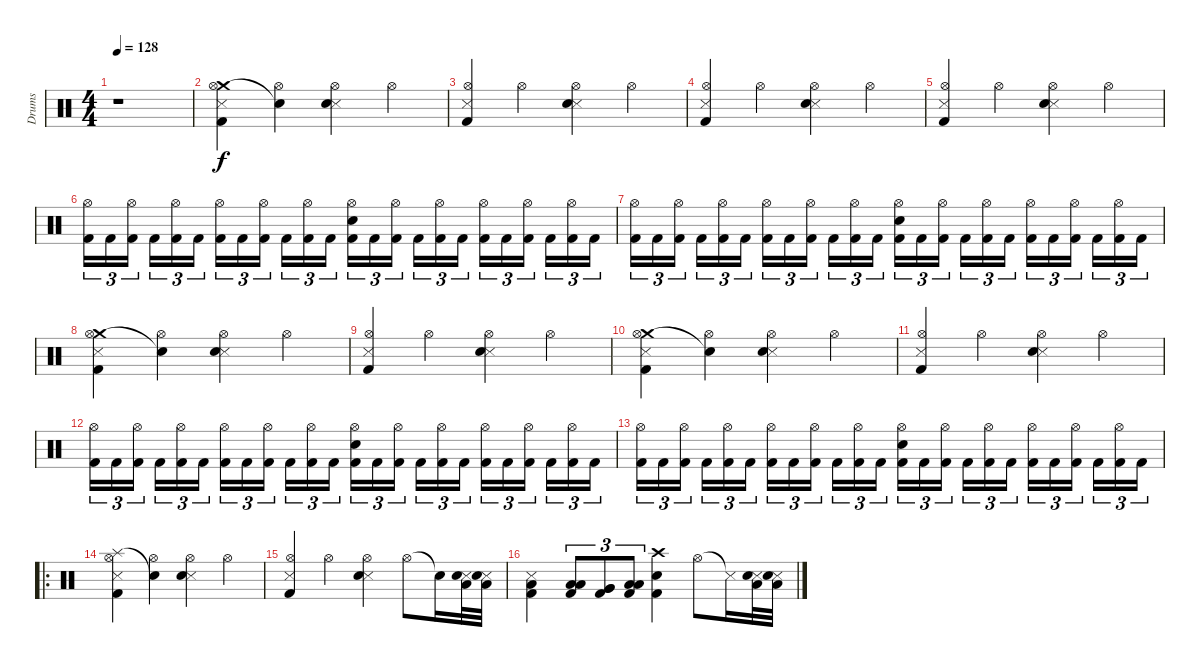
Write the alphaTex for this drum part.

\track ("Drums" "Drums") {instrument percussion}
\staff {score}
\articulation defaults
\ts (4 4)
\tempo 128
\clef neutral
\ks c
r.1{dy f} |
("Crash medium (hit)" "Snare (side stick) 3" "Hi-Hat (open)" "Kick (hit) 2").4 ("Snare (hit)"{t} "Hi-Hat (open)").4 ("Snare (side stick) 3" "Hi-Hat (open)" "Electric Snare (hit)").4 "Hi-Hat (open)".4 |
("Snare (side stick) 3" "Hi-Hat (open)" "Kick (hit) 2").4 "Hi-Hat (open)".4 ("Snare (side stick) 3" "Hi-Hat (open)" "Electric Snare (hit)").4 "Hi-Hat (open)".4 |
("Snare (side stick) 3" "Hi-Hat (open)" "Kick (hit) 2").4 "Hi-Hat (open)".4 ("Snare (side stick) 3" "Hi-Hat (open)" "Electric Snare (hit)").4 "Hi-Hat (open)".4 |
("Snare (side stick) 3" "Hi-Hat (open)" "Kick (hit) 2").4 "Hi-Hat (open)".4 ("Snare (side stick) 3" "Hi-Hat (open)" "Electric Snare (hit)").4 "Hi-Hat (open)".4 |
("Hi-Hat (open)" "Kick (hit) 2").16{tu (3 2)} "Kick (hit) 2".16{tu (3 2)} ("Hi-Hat (open)" "Kick (hit) 2").16{tu (3 2)} "Kick (hit) 2".16{tu (3 2)} ("Hi-Hat (open)" "Kick (hit) 2").16{tu (3 2)} "Kick (hit) 2".16{tu (3 2)} ("Hi-Hat (open)" "Kick (hit) 2").16{tu (3 2)} "Kick (hit) 2".16{tu (3 2)} ("Hi-Hat (open)" "Kick (hit) 2").16{tu (3 2)} "Kick (hit) 2".16{tu (3 2)} ("Hi-Hat (open)" "Kick (hit) 2").16{tu (3 2)} "Kick (hit) 2".16{tu (3 2)} ("Hi-Hat (open)" "Electric Snare (hit)" "Kick (hit) 2").16{tu (3 2)} "Kick (hit) 2".16{tu (3 2)} ("Hi-Hat (open)" "Kick (hit) 2").16{tu (3 2)} "Kick (hit) 2".16{tu (3 2)} ("Hi-Hat (open)" "Kick (hit) 2").16{tu (3 2)} "Kick (hit) 2".16{tu (3 2)} ("Hi-Hat (open)" "Kick (hit) 2").16{tu (3 2)} "Kick (hit) 2".16{tu (3 2)} ("Hi-Hat (open)" "Kick (hit) 2").16{tu (3 2)} "Kick (hit) 2".16{tu (3 2)} ("Hi-Hat (open)" "Kick (hit) 2").16{tu (3 2)} "Kick (hit) 2".16{tu (3 2)} |
("Hi-Hat (open)" "Kick (hit) 2").16{tu (3 2)} "Kick (hit) 2".16{tu (3 2)} ("Hi-Hat (open)" "Kick (hit) 2").16{tu (3 2)} "Kick (hit) 2".16{tu (3 2)} ("Hi-Hat (open)" "Kick (hit) 2").16{tu (3 2)} "Kick (hit) 2".16{tu (3 2)} ("Hi-Hat (open)" "Kick (hit) 2").16{tu (3 2)} "Kick (hit) 2".16{tu (3 2)} ("Hi-Hat (open)" "Kick (hit) 2").16{tu (3 2)} "Kick (hit) 2".16{tu (3 2)} ("Hi-Hat (open)" "Kick (hit) 2").16{tu (3 2)} "Kick (hit) 2".16{tu (3 2)} ("Hi-Hat (open)" "Electric Snare (hit)" "Kick (hit) 2").16{tu (3 2)} "Kick (hit) 2".16{tu (3 2)} ("Hi-Hat (open)" "Kick (hit) 2").16{tu (3 2)} "Kick (hit) 2".16{tu (3 2)} ("Hi-Hat (open)" "Kick (hit) 2").16{tu (3 2)} "Kick (hit) 2".16{tu (3 2)} ("Hi-Hat (open)" "Kick (hit) 2").16{tu (3 2)} "Kick (hit) 2".16{tu (3 2)} ("Hi-Hat (open)" "Kick (hit) 2").16{tu (3 2)} "Kick (hit) 2".16{tu (3 2)} ("Hi-Hat (open)" "Kick (hit) 2").16{tu (3 2)} "Kick (hit) 2".16{tu (3 2)} |
("Crash medium (hit)" "Snare (side stick) 3" "Hi-Hat (open)" "Kick (hit) 2").4 ("Snare (hit)"{t} "Hi-Hat (open)").4 ("Snare (side stick) 3" "Hi-Hat (open)" "Electric Snare (hit)").4 "Hi-Hat (open)".4 |
("Snare (side stick) 3" "Hi-Hat (open)" "Kick (hit) 2").4 "Hi-Hat (open)".4 ("Snare (side stick) 3" "Hi-Hat (open)" "Electric Snare (hit)").4 "Hi-Hat (open)".4 |
("Crash medium (hit)" "Snare (side stick) 3" "Hi-Hat (open)" "Kick (hit) 2").4 ("Snare (hit)"{t} "Hi-Hat (open)").4 ("Snare (side stick) 3" "Hi-Hat (open)" "Electric Snare (hit)").4 "Hi-Hat (open)".4 |
("Snare (side stick) 3" "Hi-Hat (open)" "Kick (hit) 2").4 "Hi-Hat (open)".4 ("Snare (side stick) 3" "Hi-Hat (open)" "Electric Snare (hit)").4 "Hi-Hat (open)".4 |
("Hi-Hat (open)" "Kick (hit) 2").16{tu (3 2)} "Kick (hit) 2".16{tu (3 2)} ("Hi-Hat (open)" "Kick (hit) 2").16{tu (3 2)} "Kick (hit) 2".16{tu (3 2)} ("Hi-Hat (open)" "Kick (hit) 2").16{tu (3 2)} "Kick (hit) 2".16{tu (3 2)} ("Hi-Hat (open)" "Kick (hit) 2").16{tu (3 2)} "Kick (hit) 2".16{tu (3 2)} ("Hi-Hat (open)" "Kick (hit) 2").16{tu (3 2)} "Kick (hit) 2".16{tu (3 2)} ("Hi-Hat (open)" "Kick (hit) 2").16{tu (3 2)} "Kick (hit) 2".16{tu (3 2)} ("Hi-Hat (open)" "Electric Snare (hit)" "Kick (hit) 2").16{tu (3 2)} "Kick (hit) 2".16{tu (3 2)} ("Hi-Hat (open)" "Kick (hit) 2").16{tu (3 2)} "Kick (hit) 2".16{tu (3 2)} ("Hi-Hat (open)" "Kick (hit) 2").16{tu (3 2)} "Kick (hit) 2".16{tu (3 2)} ("Hi-Hat (open)" "Kick (hit) 2").16{tu (3 2)} "Kick (hit) 2".16{tu (3 2)} ("Hi-Hat (open)" "Kick (hit) 2").16{tu (3 2)} "Kick (hit) 2".16{tu (3 2)} ("Hi-Hat (open)" "Kick (hit) 2").16{tu (3 2)} "Kick (hit) 2".16{tu (3 2)} |
("Hi-Hat (open)" "Kick (hit) 2").16{tu (3 2)} "Kick (hit) 2".16{tu (3 2)} ("Hi-Hat (open)" "Kick (hit) 2").16{tu (3 2)} "Kick (hit) 2".16{tu (3 2)} ("Hi-Hat (open)" "Kick (hit) 2").16{tu (3 2)} "Kick (hit) 2".16{tu (3 2)} ("Hi-Hat (open)" "Kick (hit) 2").16{tu (3 2)} "Kick (hit) 2".16{tu (3 2)} ("Hi-Hat (open)" "Kick (hit) 2").16{tu (3 2)} "Kick (hit) 2".16{tu (3 2)} ("Hi-Hat (open)" "Kick (hit) 2").16{tu (3 2)} "Kick (hit) 2".16{tu (3 2)} ("Hi-Hat (open)" "Electric Snare (hit)" "Kick (hit) 2").16{tu (3 2)} "Kick (hit) 2".16{tu (3 2)} ("Hi-Hat (open)" "Kick (hit) 2").16{tu (3 2)} "Kick (hit) 2".16{tu (3 2)} ("Hi-Hat (open)" "Kick (hit) 2").16{tu (3 2)} "Kick (hit) 2".16{tu (3 2)} ("Hi-Hat (open)" "Kick (hit) 2").16{tu (3 2)} "Kick (hit) 2".16{tu (3 2)} ("Hi-Hat (open)" "Kick (hit) 2").16{tu (3 2)} "Kick (hit) 2".16{tu (3 2)} ("Hi-Hat (open)" "Kick (hit) 2").16{tu (3 2)} "Kick (hit) 2".16{tu (3 2)} |
\ro
("Splash (hit)" "Snare (side stick) 3" "Hi-Hat (open)" "Kick (hit) 2").4 ("Snare (hit)"{t} "Hi-Hat (open)").4 ("Snare (side stick) 3" "Hi-Hat (open)" "Electric Snare (hit)").4 "Hi-Hat (open)".4 |
("Snare (side stick) 3" "Hi-Hat (open)" "Kick (hit) 2").4 "Hi-Hat (open)".4 ("Snare (side stick) 3" "Hi-Hat (open)" "Electric Snare (hit)").4 "Hi-Hat (open)".8 "Snare (hit)"{t}.16 ("Snare (side stick) 3" "Low Floor Tom (hit)" "Electric Snare (hit)").32 ("Snare (side stick) 3" "Low Floor Tom (hit)" "Electric Snare (hit)").32 |
("Snare (side stick) 3" "Low Floor Tom (hit)" "Kick (hit) 2").4 ("Low Tom (hit)" "Low Tom (hit)" "Kick (hit) 2").8{tu (3 2)} ("Very Low Tom (hit)" "Very Low Tom (hit)" "Kick (hit) 2").8{tu (3 2)} ("Low Floor Tom (hit)" "Low Floor Tom (hit)" "Kick (hit) 2").8{tu (3 2)} ("Crash high (hit)" "Electric Snare (hit)" "Kick (hit) 2").4 "Hi-Hat (open)".8 "Snare (side stick) 3"{t}.16 ("Snare (side stick) 3" "Low Floor Tom (hit)" "Electric Snare (hit)").32 ("Snare (side stick) 3" "Low Floor Tom (hit)" "Electric Snare (hit)").32
